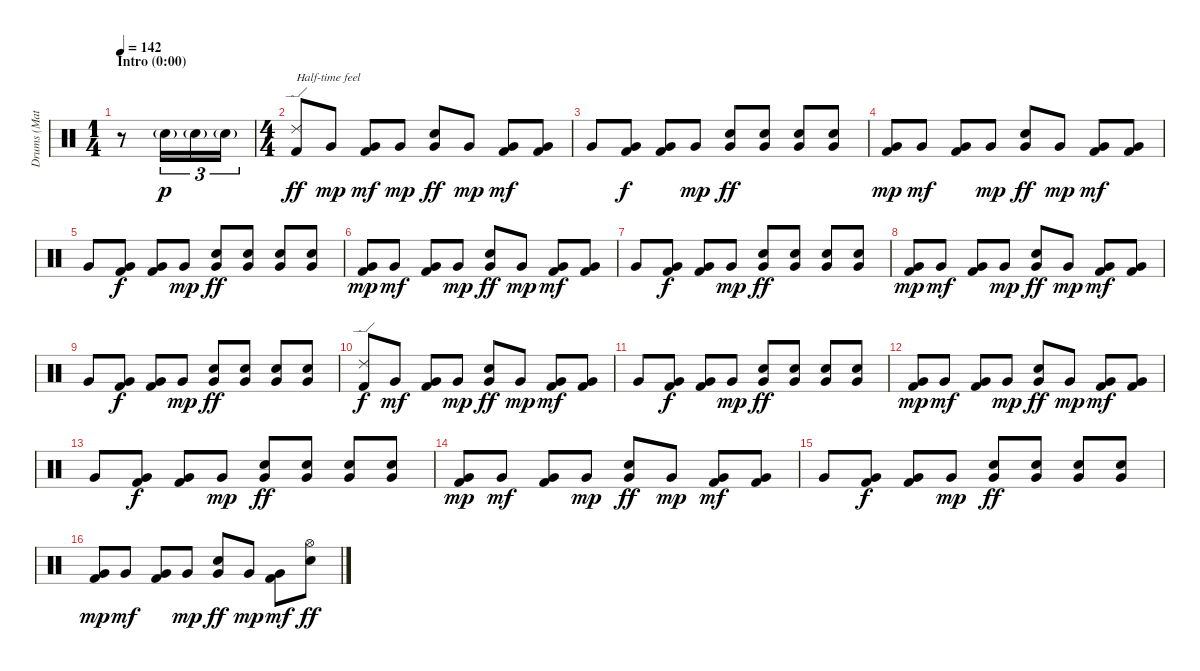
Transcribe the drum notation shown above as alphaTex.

\track ("Drums (Matt Sorum)" "Drums (Mat") {instrument percussion}
\staff {score}
\articulation defaults
\ts (1 4)
\section ("" "Intro (0:00)")
\tempo 142
\clef neutral
\ks c
r.8{dy p} "Snare (hit) 2"{g}.16{tu (3 2)} "Snare (hit) 2"{g}.16{tu (3 2)} "Snare (hit) 2"{g}.16{tu (3 2)} |
\ts (4 4)
("Ride (edge) 2" "Kick (hit) 2").8{txt "Half-time feel" dy ff} "Very Low Tom (hit)".8{dy mp} ("Very Low Tom (hit)" "Kick (hit) 2").8{dy mf} "Very Low Tom (hit)".8{dy mp} ("Very Low Tom (hit)" "Snare (hit) 2").8{dy ff} "Very Low Tom (hit)".8{dy mp} ("Very Low Tom (hit)" "Kick (hit) 2").8{dy mf} ("Very Low Tom (hit)" "Kick (hit) 2").8 |
"Very Low Tom (hit)".8 ("Very Low Tom (hit)" "Kick (hit) 2").8{dy f} ("Very Low Tom (hit)" "Kick (hit) 2").8 "Very Low Tom (hit)".8{dy mp} ("Very Low Tom (hit)" "Snare (hit) 2").8{dy ff} ("Very Low Tom (hit)" "Snare (hit) 2").8 ("Very Low Tom (hit)" "Snare (hit) 2").8 ("Very Low Tom (hit)" "Snare (hit) 2").8 |
("Very Low Tom (hit)" "Kick (hit) 2").8{dy mp} "Very Low Tom (hit)".8{dy mf} ("Very Low Tom (hit)" "Kick (hit) 2").8 "Very Low Tom (hit)".8{dy mp} ("Very Low Tom (hit)" "Snare (hit) 2").8{dy ff} "Very Low Tom (hit)".8{dy mp} ("Very Low Tom (hit)" "Kick (hit) 2").8{dy mf} ("Very Low Tom (hit)" "Kick (hit) 2").8 |
"Very Low Tom (hit)".8 ("Very Low Tom (hit)" "Kick (hit) 2").8{dy f} ("Very Low Tom (hit)" "Kick (hit) 2").8 "Very Low Tom (hit)".8{dy mp} ("Very Low Tom (hit)" "Snare (hit) 2").8{dy ff} ("Very Low Tom (hit)" "Snare (hit) 2").8 ("Very Low Tom (hit)" "Snare (hit) 2").8 ("Very Low Tom (hit)" "Snare (hit) 2").8 |
("Very Low Tom (hit)" "Kick (hit) 2").8{dy mp} "Very Low Tom (hit)".8{dy mf} ("Very Low Tom (hit)" "Kick (hit) 2").8 "Very Low Tom (hit)".8{dy mp} ("Very Low Tom (hit)" "Snare (hit) 2").8{dy ff} "Very Low Tom (hit)".8{dy mp} ("Very Low Tom (hit)" "Kick (hit) 2").8{dy mf} ("Very Low Tom (hit)" "Kick (hit) 2").8 |
"Very Low Tom (hit)".8 ("Very Low Tom (hit)" "Kick (hit) 2").8{dy f} ("Very Low Tom (hit)" "Kick (hit) 2").8 "Very Low Tom (hit)".8{dy mp} ("Very Low Tom (hit)" "Snare (hit) 2").8{dy ff} ("Very Low Tom (hit)" "Snare (hit) 2").8 ("Very Low Tom (hit)" "Snare (hit) 2").8 ("Very Low Tom (hit)" "Snare (hit) 2").8 |
("Very Low Tom (hit)" "Kick (hit) 2").8{dy mp} "Very Low Tom (hit)".8{dy mf} ("Very Low Tom (hit)" "Kick (hit) 2").8 "Very Low Tom (hit)".8{dy mp} ("Very Low Tom (hit)" "Snare (hit) 2").8{dy ff} "Very Low Tom (hit)".8{dy mp} ("Very Low Tom (hit)" "Kick (hit) 2").8{dy mf} ("Very Low Tom (hit)" "Kick (hit) 2").8 |
"Very Low Tom (hit)".8 ("Very Low Tom (hit)" "Kick (hit) 2").8{dy f} ("Very Low Tom (hit)" "Kick (hit) 2").8 "Very Low Tom (hit)".8{dy mp} ("Very Low Tom (hit)" "Snare (hit) 2").8{dy ff} ("Very Low Tom (hit)" "Snare (hit) 2").8 ("Very Low Tom (hit)" "Snare (hit) 2").8 ("Very Low Tom (hit)" "Snare (hit) 2").8 |
("Ride (edge) 2" "Kick (hit) 2").8{dy f} "Very Low Tom (hit)".8{dy mf} ("Very Low Tom (hit)" "Kick (hit) 2").8 "Very Low Tom (hit)".8{dy mp} ("Very Low Tom (hit)" "Snare (hit) 2").8{dy ff} "Very Low Tom (hit)".8{dy mp} ("Very Low Tom (hit)" "Kick (hit) 2").8{dy mf} ("Very Low Tom (hit)" "Kick (hit) 2").8 |
"Very Low Tom (hit)".8 ("Very Low Tom (hit)" "Kick (hit) 2").8{dy f} ("Very Low Tom (hit)" "Kick (hit) 2").8 "Very Low Tom (hit)".8{dy mp} ("Very Low Tom (hit)" "Snare (hit) 2").8{dy ff} ("Very Low Tom (hit)" "Snare (hit) 2").8 ("Very Low Tom (hit)" "Snare (hit) 2").8 ("Very Low Tom (hit)" "Snare (hit) 2").8 |
("Very Low Tom (hit)" "Kick (hit) 2").8{dy mp} "Very Low Tom (hit)".8{dy mf} ("Very Low Tom (hit)" "Kick (hit) 2").8 "Very Low Tom (hit)".8{dy mp} ("Very Low Tom (hit)" "Snare (hit) 2").8{dy ff} "Very Low Tom (hit)".8{dy mp} ("Very Low Tom (hit)" "Kick (hit) 2").8{dy mf} ("Very Low Tom (hit)" "Kick (hit) 2").8 |
"Very Low Tom (hit)".8 ("Very Low Tom (hit)" "Kick (hit) 2").8{dy f} ("Very Low Tom (hit)" "Kick (hit) 2").8 "Very Low Tom (hit)".8{dy mp} ("Very Low Tom (hit)" "Snare (hit) 2").8{dy ff} ("Very Low Tom (hit)" "Snare (hit) 2").8 ("Very Low Tom (hit)" "Snare (hit) 2").8 ("Very Low Tom (hit)" "Snare (hit) 2").8 |
("Very Low Tom (hit)" "Kick (hit) 2").8{dy mp} "Very Low Tom (hit)".8{dy mf} ("Very Low Tom (hit)" "Kick (hit) 2").8 "Very Low Tom (hit)".8{dy mp} ("Very Low Tom (hit)" "Snare (hit) 2").8{dy ff} "Very Low Tom (hit)".8{dy mp} ("Very Low Tom (hit)" "Kick (hit) 2").8{dy mf} ("Very Low Tom (hit)" "Kick (hit) 2").8 |
"Very Low Tom (hit)".8 ("Very Low Tom (hit)" "Kick (hit) 2").8{dy f} ("Very Low Tom (hit)" "Kick (hit) 2").8 "Very Low Tom (hit)".8{dy mp} ("Very Low Tom (hit)" "Snare (hit) 2").8{dy ff} ("Very Low Tom (hit)" "Snare (hit) 2").8 ("Very Low Tom (hit)" "Snare (hit) 2").8 ("Very Low Tom (hit)" "Snare (hit) 2").8 |
("Very Low Tom (hit)" "Kick (hit) 2").8{dy mp} "Very Low Tom (hit)".8{dy mf} ("Very Low Tom (hit)" "Kick (hit) 2").8 "Very Low Tom (hit)".8{dy mp} ("Very Low Tom (hit)" "Snare (hit) 2").8{dy ff} "Very Low Tom (hit)".8{dy mp} ("Very Low Tom (hit)" "Kick (hit) 2").8{dy mf} ("Hi-Hat (open)" "Snare (hit) 2").8{dy ff}
